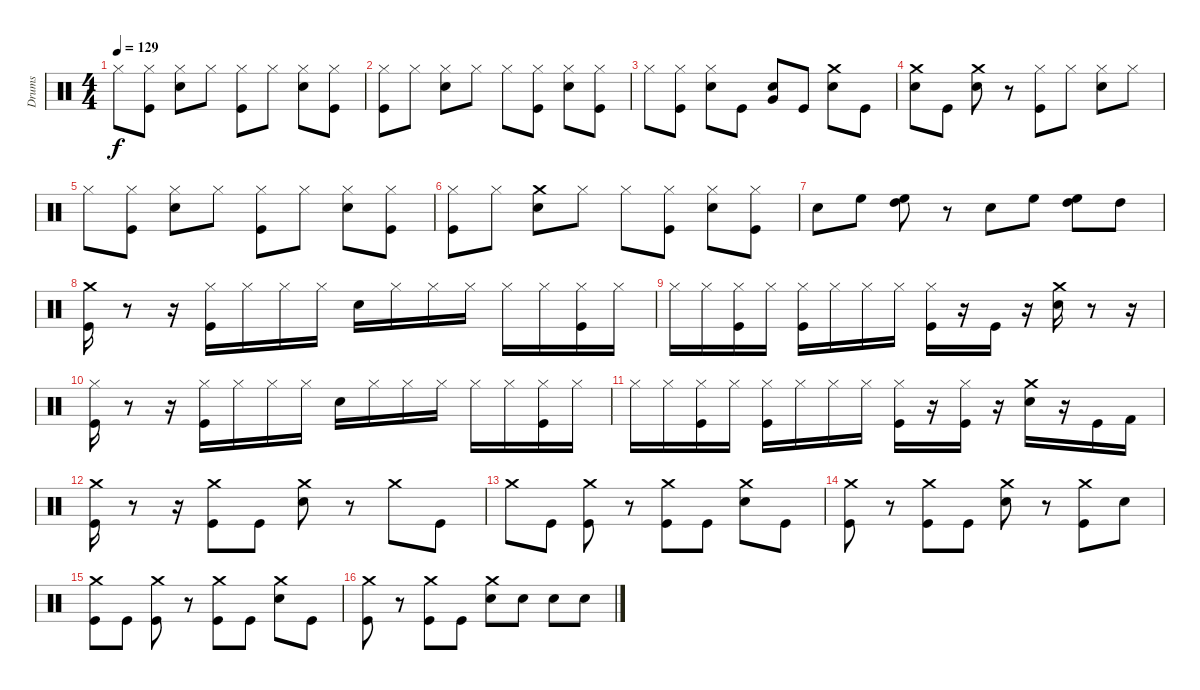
\track ("Drums" "Drums") {instrument percussion}
\staff {score}
\articulation defaults
\ts (4 4)
\tempo 129
\clef neutral
\ks c "Hi-Hat (closed)".8{dy f}
("Kick (hit)" "Hi-Hat (closed)").8 ("Hi-Hat (closed)" "Snare (hit) 2").8 "Hi-Hat (closed)".8 ("Hi-Hat (closed)" "Kick (hit)").8 "Hi-Hat (closed)".8 ("Hi-Hat (closed)" "Snare (hit) 2").8 ("Hi-Hat (closed)" "Kick (hit)").8 |
("Hi-Hat (closed)" "Kick (hit)").8 "Hi-Hat (closed)".8 ("Snare (hit) 2" "Hi-Hat (closed)").8 "Hi-Hat (closed)".8 "Hi-Hat (closed)".8 ("Hi-Hat (closed)" "Kick (hit)").8 ("Snare (hit) 2" "Hi-Hat (closed)").8 ("Kick (hit)" "Hi-Hat (closed)").8 |
"Hi-Hat (closed)".8 ("Hi-Hat (closed)" "Kick (hit)").8 ("Hi-Hat (closed)" "Snare (hit) 2").8 "Kick (hit)".8 ("Very Low Tom (hit)" "Snare (hit) 2").8 "Kick (hit)".8 ("Crash medium (hit)" "Snare (hit) 2").8 "Kick (hit)".8 |
("Crash medium (hit)" "Snare (hit) 2").8 "Kick (hit)".8 ("Crash medium (hit)" "Snare (hit) 2").8 r.8 ("Hi-Hat (closed)" "Kick (hit)").8 "Hi-Hat (closed)".8 ("Snare (hit) 2" "Hi-Hat (closed)").8 "Hi-Hat (closed)".8 |
"Hi-Hat (closed)".8 ("Kick (hit)" "Hi-Hat (closed)").8 ("Hi-Hat (closed)" "Snare (hit) 2").8 "Hi-Hat (closed)".8 ("Kick (hit)" "Hi-Hat (closed)").8 "Hi-Hat (closed)".8 ("Snare (hit) 2" "Hi-Hat (closed)").8 ("Hi-Hat (closed)" "Kick (hit)").8 |
("Kick (hit)" "Hi-Hat (closed)").8 "Hi-Hat (closed)".8 ("Snare (hit) 2" "Crash medium (hit)").8 "Hi-Hat (closed)".8 "Hi-Hat (closed)".8 ("Hi-Hat (closed)" "Kick (hit)").8 ("Hi-Hat (closed)" "Snare (hit) 2").8 ("Hi-Hat (closed)" "Kick (hit)").8 |
"Snare (hit) 2".8 "High Floor Tom (hit)".8 ("High Tom (hit)" "High Floor Tom (hit)").8 r.8 "Snare (hit) 2".8 "High Floor Tom (hit)".8 ("High Tom (hit)" "High Floor Tom (hit)").8 "High Tom (hit)".8 |
("Crash medium (hit)" "Kick (hit)").16 r.8 r.16 ("Hi-Hat (closed)" "Kick (hit)").16 "Hi-Hat (closed)".16 "Hi-Hat (closed)".16 "Hi-Hat (closed)".16 "Snare (hit) 2".16 "Hi-Hat (closed)".16 "Hi-Hat (closed)".16 "Hi-Hat (closed)".16 "Hi-Hat (closed)".16 "Hi-Hat (closed)".16 ("Kick (hit)" "Hi-Hat (closed)").16 "Hi-Hat (closed)".16 |
"Hi-Hat (closed)".16 "Hi-Hat (closed)".16 ("Kick (hit)" "Hi-Hat (closed)").16 "Hi-Hat (closed)".16 ("Hi-Hat (closed)" "Kick (hit)").16 "Hi-Hat (closed)".16 "Hi-Hat (closed)".16 "Hi-Hat (closed)".16 ("Hi-Hat (closed)" "Kick (hit)").16 r.16 "Kick (hit)".16 r.16 ("Crash medium (hit)" "Snare (hit) 2").16 r.8 r.16 |
("Hi-Hat (closed)" "Kick (hit)").16 r.8 r.16 ("Hi-Hat (closed)" "Kick (hit)").16 "Hi-Hat (closed)".16 "Hi-Hat (closed)".16 "Hi-Hat (closed)".16 "Snare (hit) 2".16 "Hi-Hat (closed)".16 "Hi-Hat (closed)".16 "Hi-Hat (closed)".16 "Hi-Hat (closed)".16 "Hi-Hat (closed)".16 ("Hi-Hat (closed)" "Kick (hit)").16 "Hi-Hat (closed)".16 |
"Hi-Hat (closed)".16 "Hi-Hat (closed)".16 ("Hi-Hat (closed)" "Kick (hit)").16 "Hi-Hat (closed)".16 ("Kick (hit)" "Hi-Hat (closed)").16 "Hi-Hat (closed)".16 "Hi-Hat (closed)".16 "Hi-Hat (closed)".16 ("Hi-Hat (closed)" "Kick (hit)").16 r.16 ("Kick (hit)" "Hi-Hat (closed)").16 r.16 ("Crash medium (hit)" "Snare (hit) 2").16 r.16 "Kick (hit)".16 "Kick (hit) 2".16 |
("Kick (hit)" "Crash medium (hit)").16 r.8 r.16 ("Kick (hit)" "Crash medium (hit)").8 "Kick (hit)".8 ("Crash medium (hit)" "Snare (hit) 2").8 r.8 "Crash medium (hit)".8 "Kick (hit)".8 |
"Crash medium (hit)".8 "Kick (hit)".8 ("Crash medium (hit)" "Kick (hit)").8 r.8 ("Kick (hit)" "Crash medium (hit)").8 "Kick (hit)".8 ("Crash medium (hit)" "Snare (hit) 2").8 "Kick (hit)".8 |
("Crash medium (hit)" "Kick (hit)").8 r.8 ("Crash medium (hit)" "Kick (hit)").8 "Kick (hit)".8 ("Snare (hit) 2" "Crash medium (hit)").8 r.8 ("Kick (hit)" "Crash medium (hit)").8 "Snare (hit) 2".8 |
("Kick (hit)" "Crash medium (hit)").8 "Kick (hit)".8 ("Kick (hit)" "Crash medium (hit)").8 r.8 ("Kick (hit)" "Crash medium (hit)").8 "Kick (hit)".8 ("Snare (hit) 2" "Crash medium (hit)").8 "Kick (hit)".8 |
("Kick (hit)" "Crash medium (hit)").8 r.8 ("Crash medium (hit)" "Kick (hit)").8 "Kick (hit)".8 ("Crash medium (hit)" "Snare (hit) 2").8 "Snare (hit) 2".8 "Snare (hit) 2".8 "Snare (hit) 2".8
